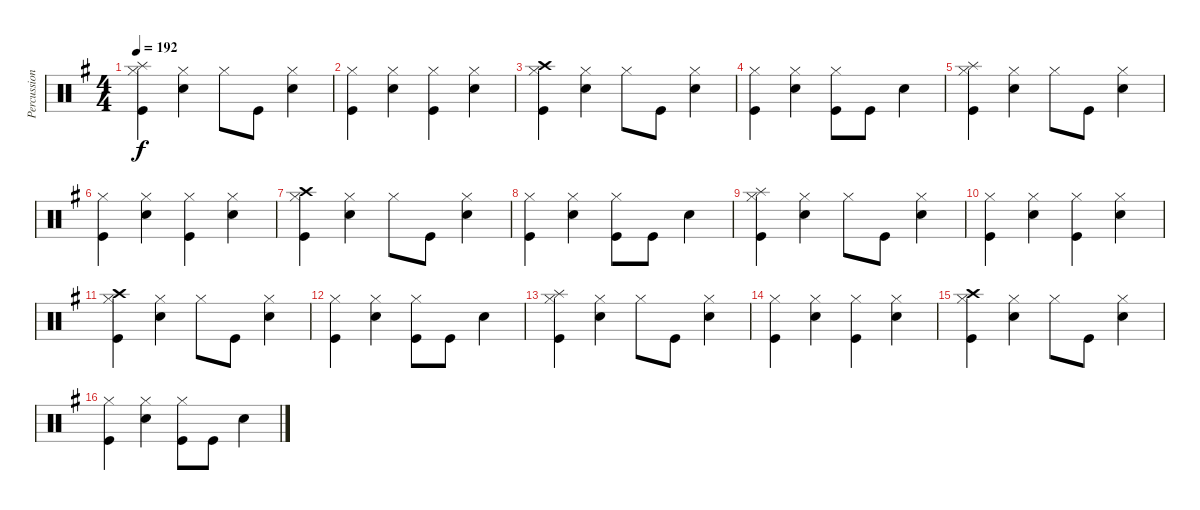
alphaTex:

\track ("Percussion" "Percussion") {instrument percussion}
\staff {score}
\articulation defaults
\ts (4 4)
\tempo 192
\clef neutral
\ks g
("Hi-Hat (closed)" "Splash (hit)" "Kick (hit)").4{dy f} ("Hi-Hat (closed)" "Snare (hit) 2").4 "Hi-Hat (closed)".8 "Kick (hit)".8 ("Snare (hit) 2" "Hi-Hat (closed)").4 |
("Hi-Hat (closed)" "Kick (hit)").4 ("Hi-Hat (closed)" "Snare (hit) 2").4 ("Hi-Hat (closed)" "Kick (hit)").4 ("Hi-Hat (closed)" "Snare (hit) 2").4 |
("Hi-Hat (closed)" "Crash high (hit)" "Kick (hit)").4 ("Hi-Hat (closed)" "Snare (hit) 2").4 "Hi-Hat (closed)".8 "Kick (hit)".8 ("Snare (hit) 2" "Hi-Hat (closed)").4 |
("Hi-Hat (closed)" "Kick (hit)").4 ("Hi-Hat (closed)" "Snare (hit) 2").4 ("Hi-Hat (closed)" "Kick (hit)").8 "Kick (hit)".8 "Snare (hit) 2".4 |
("Hi-Hat (closed)" "Splash (hit)" "Kick (hit)").4 ("Hi-Hat (closed)" "Snare (hit) 2").4 "Hi-Hat (closed)".8 "Kick (hit)".8 ("Snare (hit) 2" "Hi-Hat (closed)").4 |
("Hi-Hat (closed)" "Kick (hit)").4 ("Hi-Hat (closed)" "Snare (hit) 2").4 ("Hi-Hat (closed)" "Kick (hit)").4 ("Hi-Hat (closed)" "Snare (hit) 2").4 |
("Hi-Hat (closed)" "Crash high (hit)" "Kick (hit)").4 ("Hi-Hat (closed)" "Snare (hit) 2").4 "Hi-Hat (closed)".8 "Kick (hit)".8 ("Snare (hit) 2" "Hi-Hat (closed)").4 |
("Hi-Hat (closed)" "Kick (hit)").4 ("Hi-Hat (closed)" "Snare (hit) 2").4 ("Hi-Hat (closed)" "Kick (hit)").8 "Kick (hit)".8 "Snare (hit) 2".4 |
("Hi-Hat (closed)" "Splash (hit)" "Kick (hit)").4 ("Hi-Hat (closed)" "Snare (hit) 2").4 "Hi-Hat (closed)".8 "Kick (hit)".8 ("Snare (hit) 2" "Hi-Hat (closed)").4 |
("Hi-Hat (closed)" "Kick (hit)").4 ("Hi-Hat (closed)" "Snare (hit) 2").4 ("Hi-Hat (closed)" "Kick (hit)").4 ("Hi-Hat (closed)" "Snare (hit) 2").4 |
("Hi-Hat (closed)" "Crash high (hit)" "Kick (hit)").4 ("Hi-Hat (closed)" "Snare (hit) 2").4 "Hi-Hat (closed)".8 "Kick (hit)".8 ("Snare (hit) 2" "Hi-Hat (closed)").4 |
("Hi-Hat (closed)" "Kick (hit)").4 ("Hi-Hat (closed)" "Snare (hit) 2").4 ("Hi-Hat (closed)" "Kick (hit)").8 "Kick (hit)".8 "Snare (hit) 2".4 |
("Hi-Hat (closed)" "Splash (hit)" "Kick (hit)").4 ("Hi-Hat (closed)" "Snare (hit) 2").4 "Hi-Hat (closed)".8 "Kick (hit)".8 ("Snare (hit) 2" "Hi-Hat (closed)").4 |
("Hi-Hat (closed)" "Kick (hit)").4 ("Hi-Hat (closed)" "Snare (hit) 2").4 ("Hi-Hat (closed)" "Kick (hit)").4 ("Hi-Hat (closed)" "Snare (hit) 2").4 |
("Hi-Hat (closed)" "Crash high (hit)" "Kick (hit)").4 ("Hi-Hat (closed)" "Snare (hit) 2").4 "Hi-Hat (closed)".8 "Kick (hit)".8 ("Snare (hit) 2" "Hi-Hat (closed)").4 |
("Hi-Hat (closed)" "Kick (hit)").4 ("Hi-Hat (closed)" "Snare (hit) 2").4 ("Hi-Hat (closed)" "Kick (hit)").8 "Kick (hit)".8 "Snare (hit) 2".4
